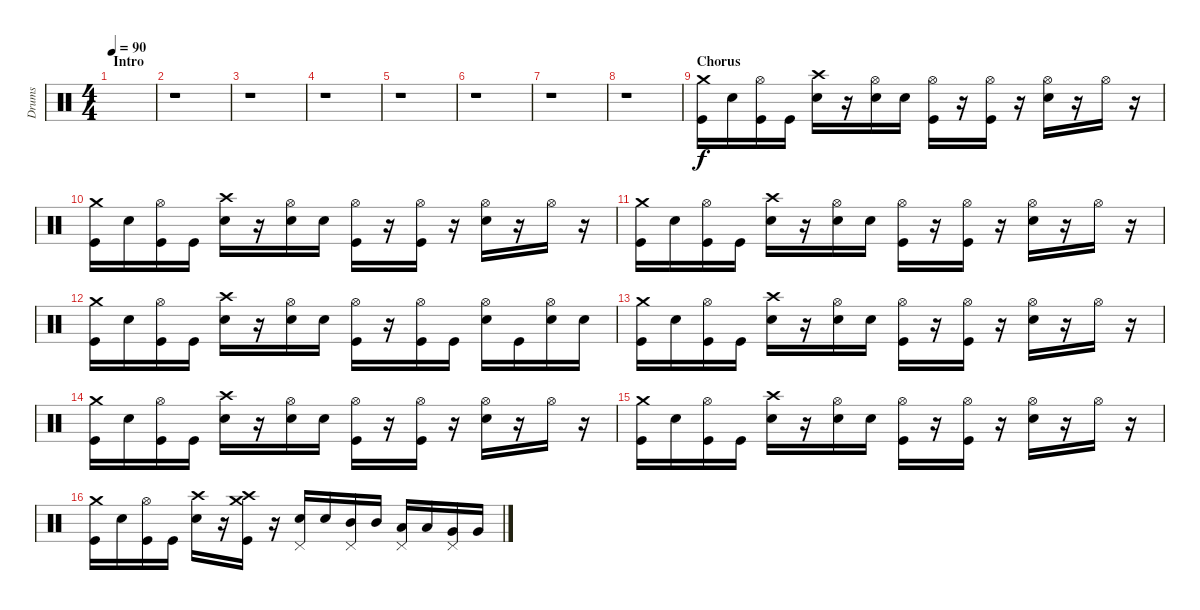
\track ("Drums" "Drums") {instrument percussion}
\staff {score}
\articulation defaults
\ts (4 4)
\section ("" "Intro")
\tempo 90
\clef neutral
\ks c
|
r.1 |
r.1 |
r.1 |
r.1 |
r.1 |
r.1 |
r.1 |
\section ("" "Chorus")
("Crash medium (hit)" "Kick (hit)").16 "Snare (hit) 2".16 ("Hi-Hat (open)" "Kick (hit)").16 "Kick (hit)".16 ("Crash high (hit)" "Snare (hit) 2").16 r.16 ("Hi-Hat (open)" "Snare (hit) 2").16 "Snare (hit) 2".16 ("Hi-Hat (open)" "Kick (hit)").16 r.16 ("Hi-Hat (open)" "Kick (hit)").16 r.16 ("Hi-Hat (open)" "Snare (hit) 2").16 r.16 "Hi-Hat (open)".16 r.16 |
("Crash medium (hit)" "Kick (hit)").16 "Snare (hit) 2".16 ("Hi-Hat (open)" "Kick (hit)").16 "Kick (hit)".16 ("Crash high (hit)" "Snare (hit) 2").16 r.16 ("Hi-Hat (open)" "Snare (hit) 2").16 "Snare (hit) 2".16 ("Hi-Hat (open)" "Kick (hit)").16 r.16 ("Hi-Hat (open)" "Kick (hit)").16 r.16 ("Hi-Hat (open)" "Snare (hit) 2").16 r.16 "Hi-Hat (open)".16 r.16 |
("Crash medium (hit)" "Kick (hit)").16 "Snare (hit) 2".16 ("Hi-Hat (open)" "Kick (hit)").16 "Kick (hit)".16 ("Crash high (hit)" "Snare (hit) 2").16 r.16 ("Hi-Hat (open)" "Snare (hit) 2").16 "Snare (hit) 2".16 ("Hi-Hat (open)" "Kick (hit)").16 r.16 ("Hi-Hat (open)" "Kick (hit)").16 r.16 ("Hi-Hat (open)" "Snare (hit) 2").16 r.16 "Hi-Hat (open)".16 r.16 |
("Crash medium (hit)" "Kick (hit)").16 "Snare (hit) 2".16 ("Hi-Hat (open)" "Kick (hit)").16 "Kick (hit)".16 ("Crash high (hit)" "Snare (hit) 2").16 r.16 ("Hi-Hat (open)" "Snare (hit) 2").16 "Snare (hit) 2".16 ("Hi-Hat (open)" "Kick (hit)").16 r.16 ("Hi-Hat (open)" "Kick (hit)").16 "Kick (hit)".16 ("Hi-Hat (open)" "Snare (hit) 2").16 "Kick (hit)".16 ("Hi-Hat (open)" "Snare (hit) 2").16 "Snare (hit) 2".16 |
("Crash medium (hit)" "Kick (hit)").16 "Snare (hit) 2".16 ("Hi-Hat (open)" "Kick (hit)").16 "Kick (hit)".16 ("Crash high (hit)" "Snare (hit) 2").16 r.16 ("Hi-Hat (open)" "Snare (hit) 2").16 "Snare (hit) 2".16 ("Hi-Hat (open)" "Kick (hit)").16 r.16 ("Hi-Hat (open)" "Kick (hit)").16 r.16 ("Hi-Hat (open)" "Snare (hit) 2").16 r.16 "Hi-Hat (open)".16 r.16 |
("Crash medium (hit)" "Kick (hit)").16 "Snare (hit) 2".16 ("Hi-Hat (open)" "Kick (hit)").16 "Kick (hit)".16 ("Crash high (hit)" "Snare (hit) 2").16 r.16 ("Hi-Hat (open)" "Snare (hit) 2").16 "Snare (hit) 2".16 ("Hi-Hat (open)" "Kick (hit)").16 r.16 ("Hi-Hat (open)" "Kick (hit)").16 r.16 ("Hi-Hat (open)" "Snare (hit) 2").16 r.16 "Hi-Hat (open)".16 r.16 |
("Crash medium (hit)" "Kick (hit)").16 "Snare (hit) 2".16 ("Hi-Hat (open)" "Kick (hit)").16 "Kick (hit)".16 ("Crash high (hit)" "Snare (hit) 2").16 r.16 ("Hi-Hat (open)" "Snare (hit) 2").16 "Snare (hit) 2".16 ("Hi-Hat (open)" "Kick (hit)").16 r.16 ("Hi-Hat (open)" "Kick (hit)").16 r.16 ("Hi-Hat (open)" "Snare (hit) 2").16 r.16 "Hi-Hat (open)".16 r.16 |
("Crash medium (hit)" "Kick (hit)").16 "Snare (hit) 2".16 ("Hi-Hat (open)" "Kick (hit)").16 "Kick (hit)".16 ("Crash high (hit)" "Snare (hit) 2").16 r.16 ("Crash medium (hit)" "Crash high (hit)" "Kick (hit)").16 r.16 ("Pedal Hi-Hat (hit)" "Snare (hit) 2").16 "Snare (hit) 2".16 ("Pedal Hi-Hat (hit)" "Mid Tom (hit)").16 "Mid Tom (hit)".16 ("Pedal Hi-Hat (hit)" "Low Tom (hit)").16 "Low Tom (hit)".16 ("Pedal Hi-Hat (hit)" "Very Low Tom (hit)").16 "Very Low Tom (hit)".16
